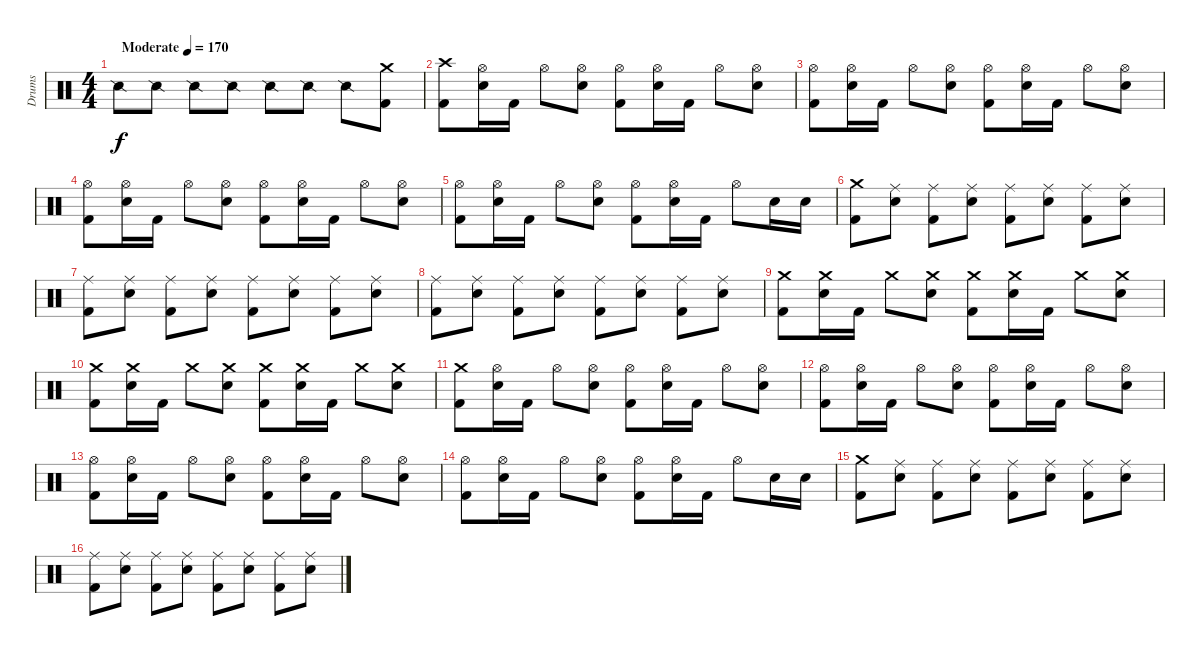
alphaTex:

\track ("Drums" "Drums") {instrument percussion}
\staff {score}
\articulation defaults
\ts (4 4)
\tempo (170 "Moderate")
\clef neutral
\ks c "Snare (side stick) 2".8{dy f} "Snare (side stick) 2".8 "Snare (side stick) 2".8 "Snare (side stick) 2".8 "Snare (side stick) 2".8 "Snare (side stick) 2".8 "Snare (side stick) 2".8
("Crash medium (hit)" "Kick (hit) 2").8 |
("Crash high (hit)" "Kick (hit) 2").8 ("Hi-Hat (open)" "Electric Snare (hit)").16 "Kick (hit) 2".16 "Hi-Hat (open)".8 ("Hi-Hat (open)" "Electric Snare (hit)").8 ("Hi-Hat (open)" "Kick (hit) 2").8 ("Hi-Hat (open)" "Electric Snare (hit)").16 "Kick (hit) 2".16 "Hi-Hat (open)".8 ("Hi-Hat (open)" "Electric Snare (hit)").8 |
("Hi-Hat (open)" "Kick (hit) 2").8 ("Hi-Hat (open)" "Electric Snare (hit)").16 "Kick (hit) 2".16 "Hi-Hat (open)".8 ("Hi-Hat (open)" "Electric Snare (hit)").8 ("Hi-Hat (open)" "Kick (hit) 2").8 ("Hi-Hat (open)" "Electric Snare (hit)").16 "Kick (hit) 2".16 "Hi-Hat (open)".8 ("Hi-Hat (open)" "Electric Snare (hit)").8 |
("Hi-Hat (open)" "Kick (hit) 2").8 ("Hi-Hat (open)" "Electric Snare (hit)").16 "Kick (hit) 2".16 "Hi-Hat (open)".8 ("Hi-Hat (open)" "Electric Snare (hit)").8 ("Hi-Hat (open)" "Kick (hit) 2").8 ("Hi-Hat (open)" "Electric Snare (hit)").16 "Kick (hit) 2".16 "Hi-Hat (open)".8 ("Hi-Hat (open)" "Electric Snare (hit)").8 |
("Hi-Hat (open)" "Kick (hit) 2").8 ("Hi-Hat (open)" "Electric Snare (hit)").16 "Kick (hit) 2".16 "Hi-Hat (open)".8 ("Hi-Hat (open)" "Electric Snare (hit)").8 ("Hi-Hat (open)" "Kick (hit) 2").8 ("Hi-Hat (open)" "Electric Snare (hit)").16 "Kick (hit) 2".16 "Hi-Hat (open)".8 "Electric Snare (hit)".16 "Electric Snare (hit)".16 |
("Crash medium (hit)" "Kick (hit) 2").8 ("Ride (middle)" "Electric Snare (hit)").8 ("Ride (middle)" "Kick (hit) 2").8 ("Ride (middle)" "Electric Snare (hit)").8 ("Ride (middle)" "Kick (hit) 2").8 ("Ride (middle)" "Electric Snare (hit)").8 ("Ride (middle)" "Kick (hit) 2").8 ("Ride (middle)" "Electric Snare (hit)").8 |
("Ride (middle)" "Kick (hit) 2").8 ("Ride (middle)" "Electric Snare (hit)").8 ("Ride (middle)" "Kick (hit) 2").8 ("Ride (middle)" "Electric Snare (hit)").8 ("Ride (middle)" "Kick (hit) 2").8 ("Ride (middle)" "Electric Snare (hit)").8 ("Ride (middle)" "Kick (hit) 2").8 ("Ride (middle)" "Electric Snare (hit)").8 |
("Ride (middle)" "Kick (hit) 2").8 ("Ride (middle)" "Electric Snare (hit)").8 ("Ride (middle)" "Kick (hit) 2").8 ("Ride (middle)" "Electric Snare (hit)").8 ("Ride (middle)" "Kick (hit) 2").8 ("Ride (middle)" "Electric Snare (hit)").8 ("Ride (middle)" "Kick (hit) 2").8 ("Ride (middle)" "Electric Snare (hit)").8 |
("Crash medium (hit)" "Kick (hit) 2").8 ("Crash medium (hit)" "Electric Snare (hit)").16 "Kick (hit) 2".16 "Crash medium (hit)".8 ("Crash medium (hit)" "Electric Snare (hit)").8 ("Crash medium (hit)" "Kick (hit) 2").8 ("Crash medium (hit)" "Electric Snare (hit)").16 "Kick (hit) 2".16 "Crash medium (hit)".8 ("Crash medium (hit)" "Electric Snare (hit)").8 |
("Crash medium (hit)" "Kick (hit) 2").8 ("Crash medium (hit)" "Electric Snare (hit)").16 "Kick (hit) 2".16 "Crash medium (hit)".8 ("Crash medium (hit)" "Electric Snare (hit)").8 ("Crash medium (hit)" "Kick (hit) 2").8 ("Crash medium (hit)" "Electric Snare (hit)").16 "Kick (hit) 2".16 "Crash medium (hit)".8 ("Crash medium (hit)" "Electric Snare (hit)").8 |
("Crash medium (hit)" "Kick (hit) 2").8 ("Hi-Hat (open)" "Electric Snare (hit)").16 "Kick (hit) 2".16 "Hi-Hat (open)".8 ("Hi-Hat (open)" "Electric Snare (hit)").8 ("Hi-Hat (open)" "Kick (hit) 2").8 ("Hi-Hat (open)" "Electric Snare (hit)").16 "Kick (hit) 2".16 "Hi-Hat (open)".8 ("Hi-Hat (open)" "Electric Snare (hit)").8 |
("Hi-Hat (open)" "Kick (hit) 2").8 ("Hi-Hat (open)" "Electric Snare (hit)").16 "Kick (hit) 2".16 "Hi-Hat (open)".8 ("Hi-Hat (open)" "Electric Snare (hit)").8 ("Hi-Hat (open)" "Kick (hit) 2").8 ("Hi-Hat (open)" "Electric Snare (hit)").16 "Kick (hit) 2".16 "Hi-Hat (open)".8 ("Hi-Hat (open)" "Electric Snare (hit)").8 |
("Hi-Hat (open)" "Kick (hit) 2").8 ("Hi-Hat (open)" "Electric Snare (hit)").16 "Kick (hit) 2".16 "Hi-Hat (open)".8 ("Hi-Hat (open)" "Electric Snare (hit)").8 ("Hi-Hat (open)" "Kick (hit) 2").8 ("Hi-Hat (open)" "Electric Snare (hit)").16 "Kick (hit) 2".16 "Hi-Hat (open)".8 ("Hi-Hat (open)" "Electric Snare (hit)").8 |
("Hi-Hat (open)" "Kick (hit) 2").8 ("Hi-Hat (open)" "Electric Snare (hit)").16 "Kick (hit) 2".16 "Hi-Hat (open)".8 ("Hi-Hat (open)" "Electric Snare (hit)").8 ("Hi-Hat (open)" "Kick (hit) 2").8 ("Hi-Hat (open)" "Electric Snare (hit)").16 "Kick (hit) 2".16 "Hi-Hat (open)".8 "Electric Snare (hit)".16 "Electric Snare (hit)".16 |
("Crash medium (hit)" "Kick (hit) 2").8 ("Ride (middle)" "Electric Snare (hit)").8 ("Ride (middle)" "Kick (hit) 2").8 ("Ride (middle)" "Electric Snare (hit)").8 ("Ride (middle)" "Kick (hit) 2").8 ("Ride (middle)" "Electric Snare (hit)").8 ("Ride (middle)" "Kick (hit) 2").8 ("Ride (middle)" "Electric Snare (hit)").8 |
("Ride (middle)" "Kick (hit) 2").8 ("Ride (middle)" "Electric Snare (hit)").8 ("Ride (middle)" "Kick (hit) 2").8 ("Ride (middle)" "Electric Snare (hit)").8 ("Ride (middle)" "Kick (hit) 2").8 ("Ride (middle)" "Electric Snare (hit)").8 ("Ride (middle)" "Kick (hit) 2").8 ("Ride (middle)" "Electric Snare (hit)").8
